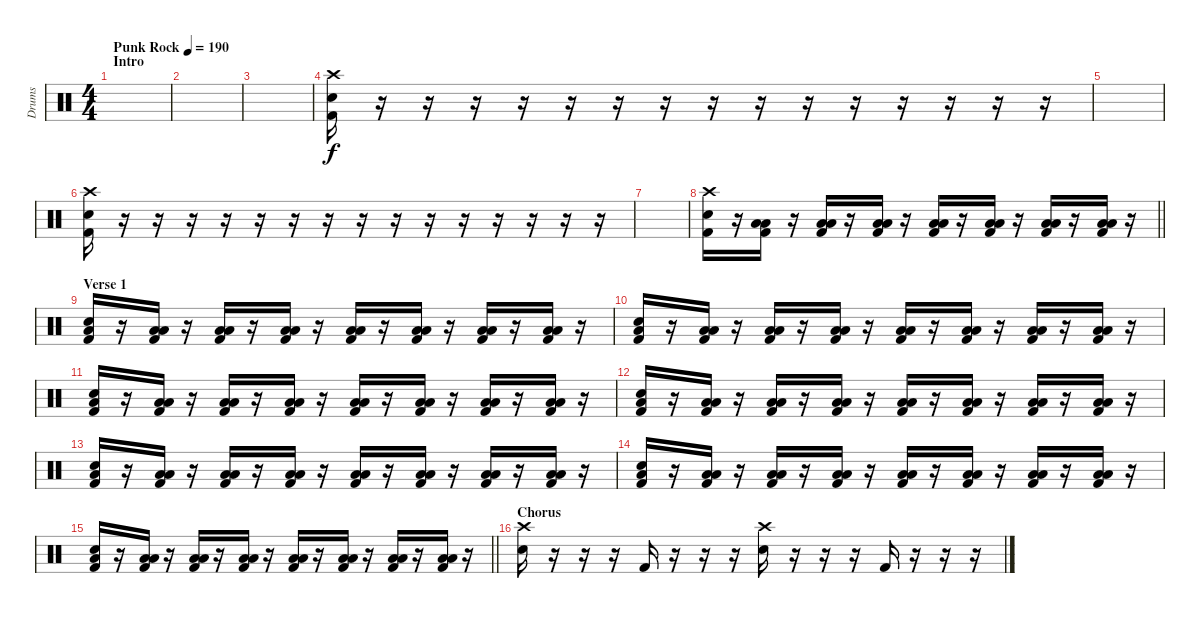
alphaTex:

\track ("Drums" "Drums") {instrument percussion}
\staff {score}
\articulation defaults
\ts (4 4)
\section ("" "Intro")
\tempo (190 "Punk Rock")
\clef neutral
\ks c
|
|
|
("Crash high (hit)" "Electric Snare (hit)" "Kick (hit) 2").16 r.16 r.16 r.16 r.16 r.16 r.16 r.16 r.16 r.16 r.16 r.16 r.16 r.16 r.16 r.16 |
|
("Crash high (hit)" "Electric Snare (hit)" "Kick (hit) 2").16 r.16 r.16 r.16 r.16 r.16 r.16 r.16 r.16 r.16 r.16 r.16 r.16 r.16 r.16 r.16 |
|
\barLineRight lightlight
("Crash high (hit)" "Electric Snare (hit)" "Kick (hit) 2").16 r.16 ("Low Tom (hit)" "Low Floor Tom (hit)" "Kick (hit) 2").16 r.16 ("Low Tom (hit)" "Low Floor Tom (hit)" "Kick (hit) 2").16 r.16 ("Low Tom (hit)" "Low Floor Tom (hit)" "Kick (hit) 2").16 r.16 ("Low Tom (hit)" "Low Floor Tom (hit)" "Kick (hit) 2").16 r.16 ("Low Tom (hit)" "Low Floor Tom (hit)" "Kick (hit) 2").16 r.16 ("Low Tom (hit)" "Low Floor Tom (hit)" "Kick (hit) 2").16 r.16 ("Low Tom (hit)" "Low Floor Tom (hit)" "Kick (hit) 2").16 r.16 |
\section ("" "Verse 1")
("Low Tom (hit)" "Electric Snare (hit)" "Kick (hit) 2").16 r.16 ("Low Tom (hit)" "Low Floor Tom (hit)" "Kick (hit) 2").16 r.16 ("Low Tom (hit)" "Low Floor Tom (hit)" "Kick (hit) 2").16 r.16 ("Low Tom (hit)" "Low Floor Tom (hit)" "Kick (hit) 2").16 r.16 ("Low Tom (hit)" "Low Floor Tom (hit)" "Kick (hit) 2").16 r.16 ("Low Tom (hit)" "Low Floor Tom (hit)" "Kick (hit) 2").16 r.16 ("Low Tom (hit)" "Low Floor Tom (hit)" "Kick (hit) 2").16 r.16 ("Low Tom (hit)" "Low Floor Tom (hit)" "Kick (hit) 2").16 r.16 |
("Low Tom (hit)" "Electric Snare (hit)" "Kick (hit) 2").16 r.16 ("Low Tom (hit)" "Low Floor Tom (hit)" "Kick (hit) 2").16 r.16 ("Low Tom (hit)" "Low Floor Tom (hit)" "Kick (hit) 2").16 r.16 ("Low Tom (hit)" "Low Floor Tom (hit)" "Kick (hit) 2").16 r.16 ("Low Tom (hit)" "Low Floor Tom (hit)" "Kick (hit) 2").16 r.16 ("Low Tom (hit)" "Low Floor Tom (hit)" "Kick (hit) 2").16 r.16 ("Low Tom (hit)" "Low Floor Tom (hit)" "Kick (hit) 2").16 r.16 ("Low Tom (hit)" "Low Floor Tom (hit)" "Kick (hit) 2").16 r.16 |
("Low Tom (hit)" "Electric Snare (hit)" "Kick (hit) 2").16 r.16 ("Low Tom (hit)" "Low Floor Tom (hit)" "Kick (hit) 2").16 r.16 ("Low Tom (hit)" "Low Floor Tom (hit)" "Kick (hit) 2").16 r.16 ("Low Tom (hit)" "Low Floor Tom (hit)" "Kick (hit) 2").16 r.16 ("Low Tom (hit)" "Low Floor Tom (hit)" "Kick (hit) 2").16 r.16 ("Low Tom (hit)" "Low Floor Tom (hit)" "Kick (hit) 2").16 r.16 ("Low Tom (hit)" "Low Floor Tom (hit)" "Kick (hit) 2").16 r.16 ("Low Tom (hit)" "Low Floor Tom (hit)" "Kick (hit) 2").16 r.16 |
("Low Tom (hit)" "Electric Snare (hit)" "Kick (hit) 2").16 r.16 ("Low Tom (hit)" "Low Floor Tom (hit)" "Kick (hit) 2").16 r.16 ("Low Tom (hit)" "Low Floor Tom (hit)" "Kick (hit) 2").16 r.16 ("Low Tom (hit)" "Low Floor Tom (hit)" "Kick (hit) 2").16 r.16 ("Low Tom (hit)" "Low Floor Tom (hit)" "Kick (hit) 2").16 r.16 ("Low Tom (hit)" "Low Floor Tom (hit)" "Kick (hit) 2").16 r.16 ("Low Tom (hit)" "Low Floor Tom (hit)" "Kick (hit) 2").16 r.16 ("Low Tom (hit)" "Low Floor Tom (hit)" "Kick (hit) 2").16 r.16 |
("Low Tom (hit)" "Electric Snare (hit)" "Kick (hit) 2").16 r.16 ("Low Tom (hit)" "Low Floor Tom (hit)" "Kick (hit) 2").16 r.16 ("Low Tom (hit)" "Low Floor Tom (hit)" "Kick (hit) 2").16 r.16 ("Low Tom (hit)" "Low Floor Tom (hit)" "Kick (hit) 2").16 r.16 ("Low Tom (hit)" "Low Floor Tom (hit)" "Kick (hit) 2").16 r.16 ("Low Tom (hit)" "Low Floor Tom (hit)" "Kick (hit) 2").16 r.16 ("Low Tom (hit)" "Low Floor Tom (hit)" "Kick (hit) 2").16 r.16 ("Low Tom (hit)" "Low Floor Tom (hit)" "Kick (hit) 2").16 r.16 |
("Low Tom (hit)" "Electric Snare (hit)" "Kick (hit) 2").16 r.16 ("Low Tom (hit)" "Low Floor Tom (hit)" "Kick (hit) 2").16 r.16 ("Low Tom (hit)" "Low Floor Tom (hit)" "Kick (hit) 2").16 r.16 ("Low Tom (hit)" "Low Floor Tom (hit)" "Kick (hit) 2").16 r.16 ("Low Tom (hit)" "Low Floor Tom (hit)" "Kick (hit) 2").16 r.16 ("Low Tom (hit)" "Low Floor Tom (hit)" "Kick (hit) 2").16 r.16 ("Low Tom (hit)" "Low Floor Tom (hit)" "Kick (hit) 2").16 r.16 ("Low Tom (hit)" "Low Floor Tom (hit)" "Kick (hit) 2").16 r.16 |
\barLineRight lightlight
("Low Tom (hit)" "Electric Snare (hit)" "Kick (hit) 2").16 r.16 ("Low Tom (hit)" "Low Floor Tom (hit)" "Kick (hit) 2").16 r.16 ("Low Tom (hit)" "Low Floor Tom (hit)" "Kick (hit) 2").16 r.16 ("Low Tom (hit)" "Low Floor Tom (hit)" "Kick (hit) 2").16 r.16 ("Low Tom (hit)" "Low Floor Tom (hit)" "Kick (hit) 2").16 r.16 ("Low Tom (hit)" "Low Floor Tom (hit)" "Kick (hit) 2").16 r.16 ("Low Tom (hit)" "Low Floor Tom (hit)" "Kick (hit) 2").16 r.16 ("Low Tom (hit)" "Low Floor Tom (hit)" "Kick (hit) 2").16 r.16 |
\section ("" "Chorus")
("Crash high (hit)" "Electric Snare (hit)").16 r.16 r.16 r.16 "Kick (hit) 2".16 r.16 r.16 r.16 ("Crash high (hit)" "Electric Snare (hit)").16 r.16 r.16 r.16 "Kick (hit) 2".16 r.16 r.16 r.16
